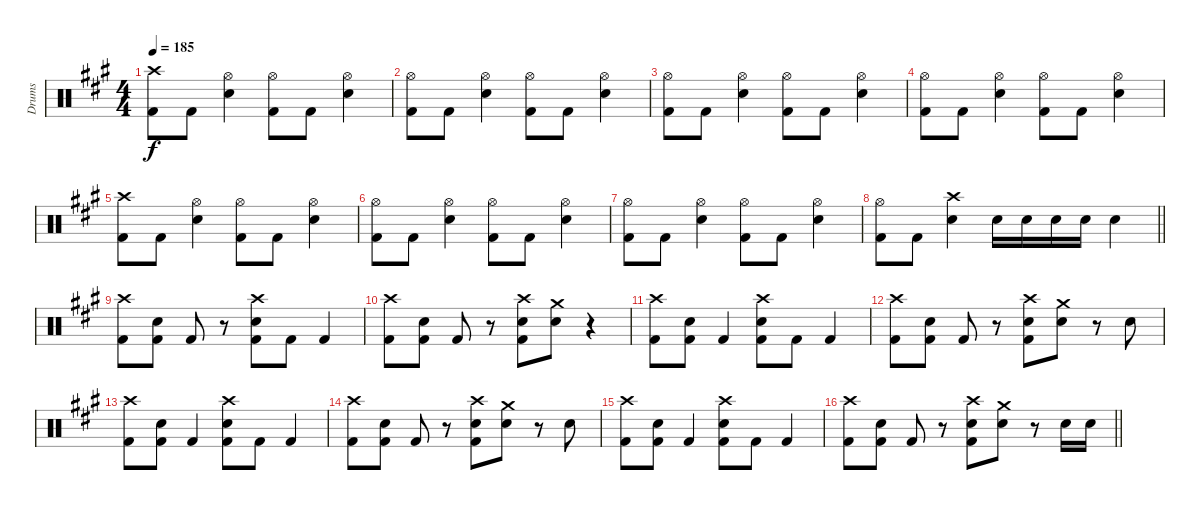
\track ("Drums" "Drums") {instrument percussion}
\staff {score}
\articulation defaults
\ts (4 4)
\tempo 185
\clef neutral
\ks f#minor
("Crash high (hit)" "Kick (hit) 2").8{dy f} "Kick (hit) 2".8 ("Hi-Hat (open)" "Electric Snare (hit)").4 ("Hi-Hat (open)" "Kick (hit) 2").8 "Kick (hit) 2".8 ("Hi-Hat (open)" "Electric Snare (hit)").4 |
("Hi-Hat (open)" "Kick (hit) 2").8 "Kick (hit) 2".8 ("Hi-Hat (open)" "Electric Snare (hit)").4 ("Hi-Hat (open)" "Kick (hit) 2").8 "Kick (hit) 2".8 ("Hi-Hat (open)" "Electric Snare (hit)").4 |
("Hi-Hat (open)" "Kick (hit) 2").8 "Kick (hit) 2".8 ("Hi-Hat (open)" "Electric Snare (hit)").4 ("Hi-Hat (open)" "Kick (hit) 2").8 "Kick (hit) 2".8 ("Hi-Hat (open)" "Electric Snare (hit)").4 |
("Hi-Hat (open)" "Kick (hit) 2").8 "Kick (hit) 2".8 ("Hi-Hat (open)" "Electric Snare (hit)").4 ("Hi-Hat (open)" "Kick (hit) 2").8 "Kick (hit) 2".8 ("Hi-Hat (open)" "Electric Snare (hit)").4 |
("Crash high (hit)" "Kick (hit) 2").8 "Kick (hit) 2".8 ("Hi-Hat (open)" "Electric Snare (hit)").4 ("Hi-Hat (open)" "Kick (hit) 2").8 "Kick (hit) 2".8 ("Hi-Hat (open)" "Electric Snare (hit)").4 |
("Hi-Hat (open)" "Kick (hit) 2").8 "Kick (hit) 2".8 ("Hi-Hat (open)" "Electric Snare (hit)").4 ("Hi-Hat (open)" "Kick (hit) 2").8 "Kick (hit) 2".8 ("Hi-Hat (open)" "Electric Snare (hit)").4 |
("Hi-Hat (open)" "Kick (hit) 2").8 "Kick (hit) 2".8 ("Hi-Hat (open)" "Electric Snare (hit)").4 ("Hi-Hat (open)" "Kick (hit) 2").8 "Kick (hit) 2".8 ("Hi-Hat (open)" "Electric Snare (hit)").4 |
\barLineRight lightlight
("Hi-Hat (open)" "Kick (hit) 2").8 "Kick (hit) 2".8 ("Crash high (hit)" "Electric Snare (hit)").4 "Electric Snare (hit)".16 "Electric Snare (hit)".16 "Electric Snare (hit)".16 "Electric Snare (hit)".16 "Electric Snare (hit)".4 |
("Crash high (hit)" "Kick (hit) 2").8 ("Electric Snare (hit)" "Kick (hit) 2").8 "Kick (hit) 2".8 r.8 ("Crash high (hit)" "Electric Snare (hit)" "Kick (hit) 2").8 "Kick (hit) 2".8 "Kick (hit) 2".4 |
("Crash high (hit)" "Kick (hit) 2").8 ("Electric Snare (hit)" "Kick (hit) 2").8 "Kick (hit) 2".8 r.8 ("Crash high (hit)" "Electric Snare (hit)" "Kick (hit) 2").8 ("Electric Snare (hit)" "Crash medium (hit)").8 r.4 |
("Crash high (hit)" "Kick (hit) 2").8 ("Electric Snare (hit)" "Kick (hit) 2").8 "Kick (hit) 2".4 ("Crash high (hit)" "Electric Snare (hit)" "Kick (hit) 2").8 "Kick (hit) 2".8 "Kick (hit) 2".4 |
("Crash high (hit)" "Kick (hit) 2").8 ("Electric Snare (hit)" "Kick (hit) 2").8 "Kick (hit) 2".8 r.8 ("Crash high (hit)" "Electric Snare (hit)" "Kick (hit) 2").8 ("Electric Snare (hit)" "Crash medium (hit)").8 r.8 "Electric Snare (hit)".8 |
("Crash high (hit)" "Kick (hit) 2").8 ("Electric Snare (hit)" "Kick (hit) 2").8 "Kick (hit) 2".4 ("Crash high (hit)" "Electric Snare (hit)" "Kick (hit) 2").8 "Kick (hit) 2".8 "Kick (hit) 2".4 |
("Crash high (hit)" "Kick (hit) 2").8 ("Electric Snare (hit)" "Kick (hit) 2").8 "Kick (hit) 2".8 r.8 ("Crash high (hit)" "Electric Snare (hit)" "Kick (hit) 2").8 ("Electric Snare (hit)" "Crash medium (hit)").8 r.8 "Electric Snare (hit)".8 |
("Crash high (hit)" "Kick (hit) 2").8 ("Electric Snare (hit)" "Kick (hit) 2").8 "Kick (hit) 2".4 ("Crash high (hit)" "Electric Snare (hit)" "Kick (hit) 2").8 "Kick (hit) 2".8 "Kick (hit) 2".4 |
\barLineRight lightlight
("Crash high (hit)" "Kick (hit) 2").8 ("Electric Snare (hit)" "Kick (hit) 2").8 "Kick (hit) 2".8 r.8 ("Crash high (hit)" "Electric Snare (hit)" "Kick (hit) 2").8 ("Electric Snare (hit)" "Crash medium (hit)").8 r.8 "Electric Snare (hit)".16 "Electric Snare (hit)".16
